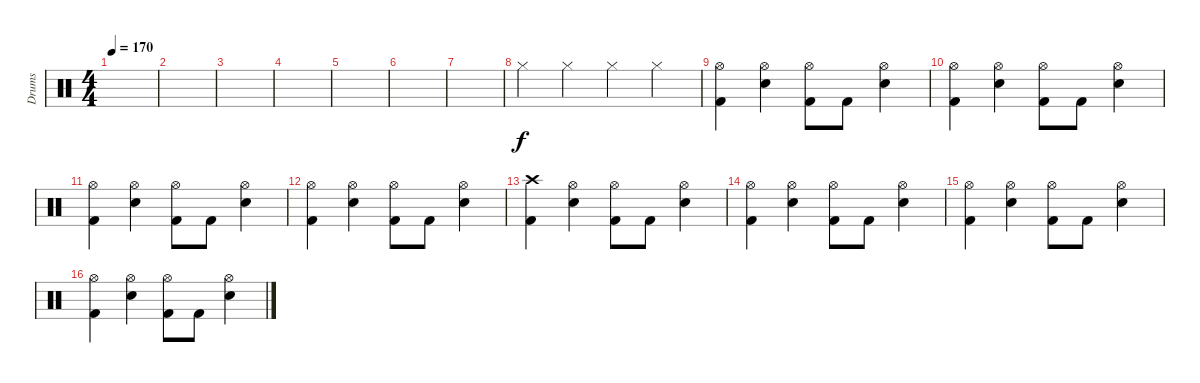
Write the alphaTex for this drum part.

\track ("Drums" "Drums") {instrument percussion}
\staff {score}
\articulation defaults
\ts (4 4)
\tempo 170
\clef neutral
\ks c
|
|
|
|
|
|
|
"Hi-Hat (closed)".4 "Hi-Hat (closed)".4 "Hi-Hat (closed)".4 "Hi-Hat (closed)".4 |
("Hi-Hat (open)" "Kick (hit) 2").4 ("Hi-Hat (open)" "Snare (hit) 2").4 ("Hi-Hat (open)" "Kick (hit) 2").8 "Kick (hit) 2".8 ("Hi-Hat (open)" "Snare (hit) 2").4 |
("Hi-Hat (open)" "Kick (hit) 2").4 ("Hi-Hat (open)" "Snare (hit) 2").4 ("Hi-Hat (open)" "Kick (hit) 2").8 "Kick (hit) 2".8 ("Hi-Hat (open)" "Snare (hit) 2").4 |
("Hi-Hat (open)" "Kick (hit) 2").4 ("Hi-Hat (open)" "Snare (hit) 2").4 ("Hi-Hat (open)" "Kick (hit) 2").8 "Kick (hit) 2".8 ("Hi-Hat (open)" "Snare (hit) 2").4 |
("Hi-Hat (open)" "Kick (hit) 2").4 ("Hi-Hat (open)" "Snare (hit) 2").4 ("Hi-Hat (open)" "Kick (hit) 2").8 "Kick (hit) 2".8 ("Hi-Hat (open)" "Snare (hit) 2").4 |
("Crash high (hit)" "Kick (hit) 2").4 ("Hi-Hat (open)" "Snare (hit) 2").4 ("Hi-Hat (open)" "Kick (hit) 2").8 "Kick (hit) 2".8 ("Hi-Hat (open)" "Snare (hit) 2").4 |
("Hi-Hat (open)" "Kick (hit) 2").4 ("Hi-Hat (open)" "Snare (hit) 2").4 ("Hi-Hat (open)" "Kick (hit) 2").8 "Kick (hit) 2".8 ("Hi-Hat (open)" "Snare (hit) 2").4 |
("Hi-Hat (open)" "Kick (hit) 2").4 ("Hi-Hat (open)" "Snare (hit) 2").4 ("Hi-Hat (open)" "Kick (hit) 2").8 "Kick (hit) 2".8 ("Hi-Hat (open)" "Snare (hit) 2").4 |
("Hi-Hat (open)" "Kick (hit) 2").4 ("Hi-Hat (open)" "Snare (hit) 2").4 ("Hi-Hat (open)" "Kick (hit) 2").8 "Kick (hit) 2".8 ("Hi-Hat (open)" "Snare (hit) 2").4
